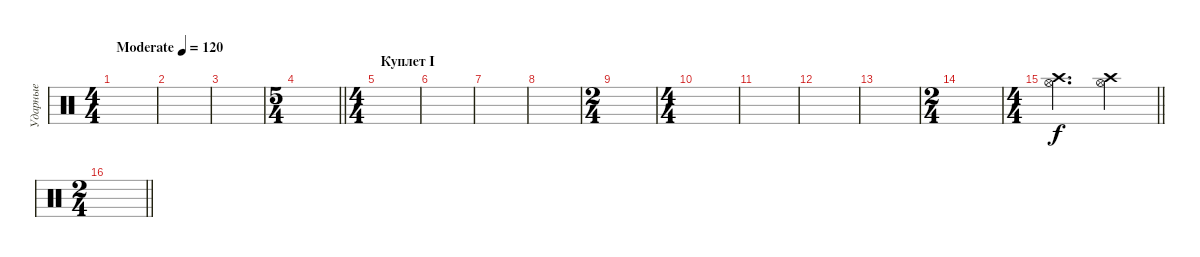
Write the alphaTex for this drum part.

\track ("Ударные" "Ударные") {instrument percussion}
\staff {score}
\articulation defaults
\ts (4 4)
\tempo (120 "Moderate")
\clef neutral
\ks c
|
|
|
\ts (5 4)
\barLineRight lightlight
|
\ts (4 4)
\section ("" "Куплет I")
|
|
|
|
\ts (2 4)
|
\ts (4 4)
|
|
|
|
\ts (2 4)
|
\ts (4 4)
\barLineRight lightlight
("Hi-Hat (open)" "Crash high (hit)").2{d} ("Hi-Hat (open)" "Crash high (hit)").2 |
\ts (2 4)
\barLineRight lightlight
